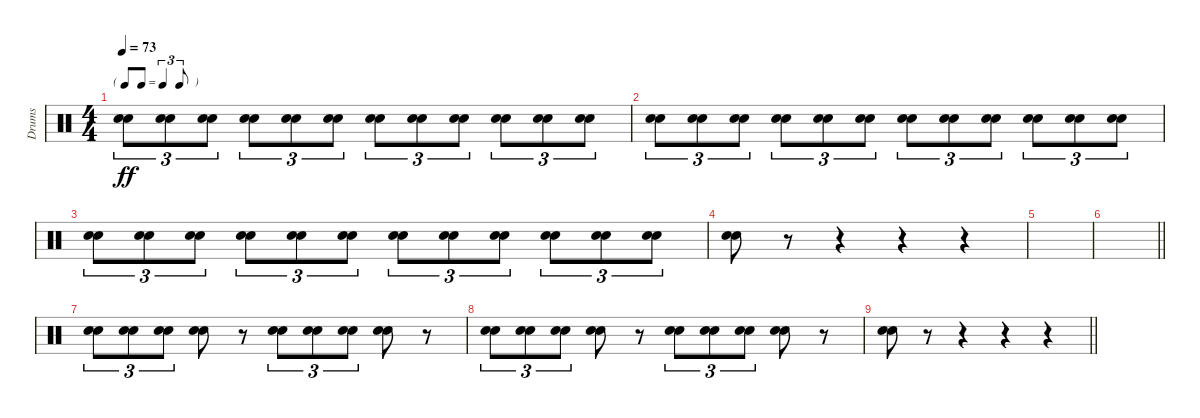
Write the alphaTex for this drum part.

\track ("Drums" "Drums") {instrument percussion}
\staff {score}
\articulation defaults
\ts (4 4)
\tf triplet8th
\section ("" "")
\tempo 73
\clef neutral
\ks c
("Snare (hit) 2" "Hand Clap (hit)").8{tu (3 2) dy ff} ("Snare (hit) 2" "Hand Clap (hit)").8{tu (3 2)} ("Snare (hit) 2" "Hand Clap (hit)").8{tu (3 2)} ("Snare (hit) 2" "Hand Clap (hit)").8{tu (3 2)} ("Snare (hit) 2" "Hand Clap (hit)").8{tu (3 2)} ("Snare (hit) 2" "Hand Clap (hit)").8{tu (3 2)} ("Snare (hit) 2" "Hand Clap (hit)").8{tu (3 2)} ("Snare (hit) 2" "Hand Clap (hit)").8{tu (3 2)} ("Snare (hit) 2" "Hand Clap (hit)").8{tu (3 2)} ("Snare (hit) 2" "Hand Clap (hit)").8{tu (3 2)} ("Snare (hit) 2" "Hand Clap (hit)").8{tu (3 2)} ("Snare (hit) 2" "Hand Clap (hit)").8{tu (3 2)} |
("Snare (hit) 2" "Hand Clap (hit)").8{tu (3 2)} ("Snare (hit) 2" "Hand Clap (hit)").8{tu (3 2)} ("Snare (hit) 2" "Hand Clap (hit)").8{tu (3 2)} ("Snare (hit) 2" "Hand Clap (hit)").8{tu (3 2)} ("Snare (hit) 2" "Hand Clap (hit)").8{tu (3 2)} ("Snare (hit) 2" "Hand Clap (hit)").8{tu (3 2)} ("Snare (hit) 2" "Hand Clap (hit)").8{tu (3 2)} ("Snare (hit) 2" "Hand Clap (hit)").8{tu (3 2)} ("Snare (hit) 2" "Hand Clap (hit)").8{tu (3 2)} ("Snare (hit) 2" "Hand Clap (hit)").8{tu (3 2)} ("Snare (hit) 2" "Hand Clap (hit)").8{tu (3 2)} ("Snare (hit) 2" "Hand Clap (hit)").8{tu (3 2)} |
("Snare (hit) 2" "Hand Clap (hit)").8{tu (3 2)} ("Snare (hit) 2" "Hand Clap (hit)").8{tu (3 2)} ("Snare (hit) 2" "Hand Clap (hit)").8{tu (3 2)} ("Snare (hit) 2" "Hand Clap (hit)").8{tu (3 2)} ("Snare (hit) 2" "Hand Clap (hit)").8{tu (3 2)} ("Snare (hit) 2" "Hand Clap (hit)").8{tu (3 2)} ("Snare (hit) 2" "Hand Clap (hit)").8{tu (3 2)} ("Snare (hit) 2" "Hand Clap (hit)").8{tu (3 2)} ("Snare (hit) 2" "Hand Clap (hit)").8{tu (3 2)} ("Snare (hit) 2" "Hand Clap (hit)").8{tu (3 2)} ("Snare (hit) 2" "Hand Clap (hit)").8{tu (3 2)} ("Snare (hit) 2" "Hand Clap (hit)").8{tu (3 2)} |
("Snare (hit) 2" "Hand Clap (hit)").8 r.8 r.4 r.4 r.4 |
|
\barLineRight lightlight
|
\section ("" "")
("Snare (hit) 2" "Hand Clap (hit)").8{tu (3 2)} ("Snare (hit) 2" "Hand Clap (hit)").8{tu (3 2)} ("Snare (hit) 2" "Hand Clap (hit)").8{tu (3 2)} ("Snare (hit) 2" "Hand Clap (hit)").8 r.8 ("Snare (hit) 2" "Hand Clap (hit)").8{tu (3 2)} ("Snare (hit) 2" "Hand Clap (hit)").8{tu (3 2)} ("Snare (hit) 2" "Hand Clap (hit)").8{tu (3 2)} ("Snare (hit) 2" "Hand Clap (hit)").8 r.8 |
("Snare (hit) 2" "Hand Clap (hit)").8{tu (3 2)} ("Snare (hit) 2" "Hand Clap (hit)").8{tu (3 2)} ("Snare (hit) 2" "Hand Clap (hit)").8{tu (3 2)} ("Snare (hit) 2" "Hand Clap (hit)").8 r.8 ("Snare (hit) 2" "Hand Clap (hit)").8{tu (3 2)} ("Snare (hit) 2" "Hand Clap (hit)").8{tu (3 2)} ("Snare (hit) 2" "Hand Clap (hit)").8{tu (3 2)} ("Snare (hit) 2" "Hand Clap (hit)").8 r.8 |
\barLineRight lightlight
("Snare (hit) 2" "Hand Clap (hit)").8 r.8 r.4 r.4 r.4
